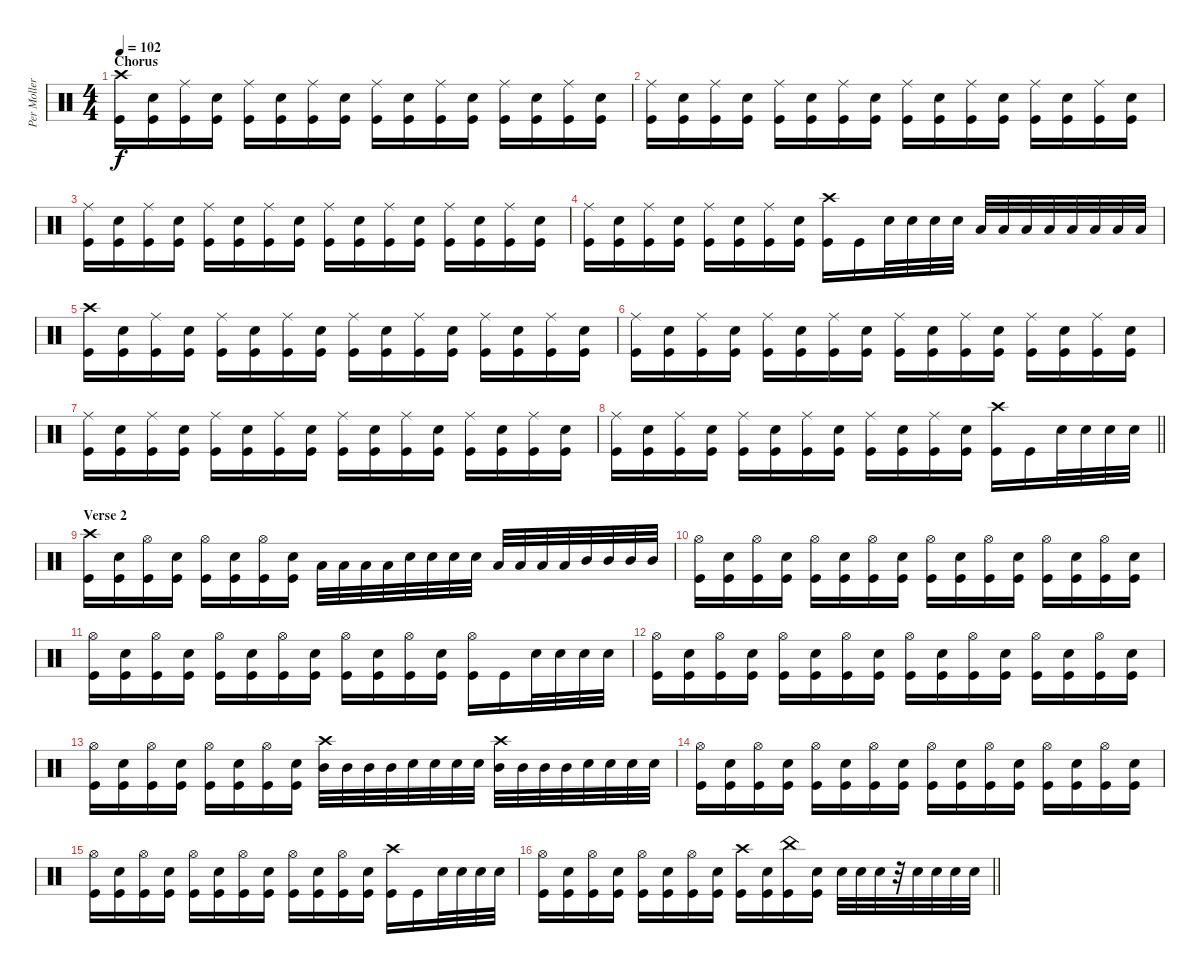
\track ("Per Moller Jensen" "Per Moller") {instrument percussion}
\staff {score}
\articulation defaults
\ts (4 4)
\section ("" "Chorus")
\tempo 102
\clef neutral
\ks c
("Crash high (hit)" "Kick (hit)").16{dy f} ("Snare (hit) 2" "Kick (hit)").16 ("Ride (middle)" "Kick (hit)").16 ("Snare (hit) 2" "Kick (hit)").16 ("Ride (middle)" "Kick (hit)").16 ("Snare (hit) 2" "Kick (hit)").16 ("Ride (middle)" "Kick (hit)").16 ("Snare (hit) 2" "Kick (hit)").16 ("Ride (middle)" "Kick (hit)").16 ("Snare (hit) 2" "Kick (hit)").16 ("Ride (middle)" "Kick (hit)").16 ("Snare (hit) 2" "Kick (hit)").16 ("Ride (middle)" "Kick (hit)").16 ("Snare (hit) 2" "Kick (hit)").16 ("Ride (middle)" "Kick (hit)").16 ("Snare (hit) 2" "Kick (hit)").16 |
("Ride (middle)" "Kick (hit)").16 ("Snare (hit) 2" "Kick (hit)").16 ("Ride (middle)" "Kick (hit)").16 ("Snare (hit) 2" "Kick (hit)").16 ("Ride (middle)" "Kick (hit)").16 ("Snare (hit) 2" "Kick (hit)").16 ("Ride (middle)" "Kick (hit)").16 ("Snare (hit) 2" "Kick (hit)").16 ("Ride (middle)" "Kick (hit)").16 ("Snare (hit) 2" "Kick (hit)").16 ("Ride (middle)" "Kick (hit)").16 ("Snare (hit) 2" "Kick (hit)").16 ("Ride (middle)" "Kick (hit)").16 ("Snare (hit) 2" "Kick (hit)").16 ("Ride (middle)" "Kick (hit)").16 ("Snare (hit) 2" "Kick (hit)").16 |
("Ride (middle)" "Kick (hit)").16 ("Snare (hit) 2" "Kick (hit)").16 ("Ride (middle)" "Kick (hit)").16 ("Snare (hit) 2" "Kick (hit)").16 ("Ride (middle)" "Kick (hit)").16 ("Snare (hit) 2" "Kick (hit)").16 ("Ride (middle)" "Kick (hit)").16 ("Snare (hit) 2" "Kick (hit)").16 ("Ride (middle)" "Kick (hit)").16 ("Snare (hit) 2" "Kick (hit)").16 ("Ride (middle)" "Kick (hit)").16 ("Snare (hit) 2" "Kick (hit)").16 ("Ride (middle)" "Kick (hit)").16 ("Snare (hit) 2" "Kick (hit)").16 ("Ride (middle)" "Kick (hit)").16 ("Snare (hit) 2" "Kick (hit)").16 |
("Ride (middle)" "Kick (hit)").16 ("Snare (hit) 2" "Kick (hit)").16 ("Ride (middle)" "Kick (hit)").16 ("Snare (hit) 2" "Kick (hit)").16 ("Ride (middle)" "Kick (hit)").16 ("Snare (hit) 2" "Kick (hit)").16 ("Ride (middle)" "Kick (hit)").16 ("Snare (hit) 2" "Kick (hit)").16 ("Crash high (hit)" "Kick (hit)").16 "Kick (hit)".16 "Snare (hit) 2".32 "Snare (hit) 2".32 "Snare (hit) 2".32 "Snare (hit) 2".32 "Low Tom (hit)".32 "Low Tom (hit)".32 "Low Tom (hit)".32 "Low Tom (hit)".32 "Low Tom (hit)".32 "Low Tom (hit)".32 "Low Tom (hit)".32 "Low Tom (hit)".32 |
("Crash high (hit)" "Kick (hit)").16 ("Snare (hit) 2" "Kick (hit)").16 ("Ride (middle)" "Kick (hit)").16 ("Snare (hit) 2" "Kick (hit)").16 ("Ride (middle)" "Kick (hit)").16 ("Snare (hit) 2" "Kick (hit)").16 ("Ride (middle)" "Kick (hit)").16 ("Snare (hit) 2" "Kick (hit)").16 ("Ride (middle)" "Kick (hit)").16 ("Snare (hit) 2" "Kick (hit)").16 ("Ride (middle)" "Kick (hit)").16 ("Snare (hit) 2" "Kick (hit)").16 ("Ride (middle)" "Kick (hit)").16 ("Snare (hit) 2" "Kick (hit)").16 ("Ride (middle)" "Kick (hit)").16 ("Snare (hit) 2" "Kick (hit)").16 |
("Ride (middle)" "Kick (hit)").16 ("Snare (hit) 2" "Kick (hit)").16 ("Ride (middle)" "Kick (hit)").16 ("Snare (hit) 2" "Kick (hit)").16 ("Ride (middle)" "Kick (hit)").16 ("Snare (hit) 2" "Kick (hit)").16 ("Ride (middle)" "Kick (hit)").16 ("Snare (hit) 2" "Kick (hit)").16 ("Ride (middle)" "Kick (hit)").16 ("Snare (hit) 2" "Kick (hit)").16 ("Ride (middle)" "Kick (hit)").16 ("Snare (hit) 2" "Kick (hit)").16 ("Ride (middle)" "Kick (hit)").16 ("Snare (hit) 2" "Kick (hit)").16 ("Ride (middle)" "Kick (hit)").16 ("Snare (hit) 2" "Kick (hit)").16 |
("Ride (middle)" "Kick (hit)").16 ("Snare (hit) 2" "Kick (hit)").16 ("Ride (middle)" "Kick (hit)").16 ("Snare (hit) 2" "Kick (hit)").16 ("Ride (middle)" "Kick (hit)").16 ("Snare (hit) 2" "Kick (hit)").16 ("Ride (middle)" "Kick (hit)").16 ("Snare (hit) 2" "Kick (hit)").16 ("Ride (middle)" "Kick (hit)").16 ("Snare (hit) 2" "Kick (hit)").16 ("Ride (middle)" "Kick (hit)").16 ("Snare (hit) 2" "Kick (hit)").16 ("Ride (middle)" "Kick (hit)").16 ("Snare (hit) 2" "Kick (hit)").16 ("Ride (middle)" "Kick (hit)").16 ("Snare (hit) 2" "Kick (hit)").16 |
\barLineRight lightlight
("Ride (middle)" "Kick (hit)").16 ("Snare (hit) 2" "Kick (hit)").16 ("Ride (middle)" "Kick (hit)").16 ("Snare (hit) 2" "Kick (hit)").16 ("Ride (middle)" "Kick (hit)").16 ("Snare (hit) 2" "Kick (hit)").16 ("Ride (middle)" "Kick (hit)").16 ("Snare (hit) 2" "Kick (hit)").16 ("Ride (middle)" "Kick (hit)").16 ("Snare (hit) 2" "Kick (hit)").16 ("Ride (middle)" "Kick (hit)").16 ("Snare (hit) 2" "Kick (hit)").16 ("Crash high (hit)" "Kick (hit)").16 "Kick (hit)".16 "Snare (hit) 2".32 "Snare (hit) 2".32 "Snare (hit) 2".32 "Snare (hit) 2".32 |
\section ("" "Verse 2")
("Crash high (hit)" "Kick (hit)").16 ("Snare (hit) 2" "Kick (hit)").16 ("Hi-Hat (open)" "Kick (hit)").16 ("Snare (hit) 2" "Kick (hit)").16 ("Hi-Hat (open)" "Kick (hit)").16 ("Snare (hit) 2" "Kick (hit)").16 ("Hi-Hat (open)" "Kick (hit)").16 ("Snare (hit) 2" "Kick (hit)").16 "Low Tom (hit)".32 "Low Tom (hit)".32 "Low Tom (hit)".32 "Low Tom (hit)".32 "Snare (hit) 2".32 "Snare (hit) 2".32 "Snare (hit) 2".32 "Snare (hit) 2".32 "Low Tom (hit)".32 "Low Tom (hit)".32 "Low Tom (hit)".32 "Low Tom (hit)".32 "Mid Tom (hit)".32 "Mid Tom (hit)".32 "Mid Tom (hit)".32 "Mid Tom (hit)".32 |
("Hi-Hat (open)" "Kick (hit)").16 ("Snare (hit) 2" "Kick (hit)").16 ("Hi-Hat (open)" "Kick (hit)").16 ("Snare (hit) 2" "Kick (hit)").16 ("Hi-Hat (open)" "Kick (hit)").16 ("Snare (hit) 2" "Kick (hit)").16 ("Hi-Hat (open)" "Kick (hit)").16 ("Snare (hit) 2" "Kick (hit)").16 ("Hi-Hat (open)" "Kick (hit)").16 ("Snare (hit) 2" "Kick (hit)").16 ("Hi-Hat (open)" "Kick (hit)").16 ("Snare (hit) 2" "Kick (hit)").16 ("Hi-Hat (open)" "Kick (hit)").16 ("Snare (hit) 2" "Kick (hit)").16 ("Hi-Hat (open)" "Kick (hit)").16 ("Snare (hit) 2" "Kick (hit)").16 |
("Hi-Hat (open)" "Kick (hit)").16 ("Snare (hit) 2" "Kick (hit)").16 ("Hi-Hat (open)" "Kick (hit)").16 ("Snare (hit) 2" "Kick (hit)").16 ("Hi-Hat (open)" "Kick (hit)").16 ("Snare (hit) 2" "Kick (hit)").16 ("Hi-Hat (open)" "Kick (hit)").16 ("Snare (hit) 2" "Kick (hit)").16 ("Hi-Hat (open)" "Kick (hit)").16 ("Snare (hit) 2" "Kick (hit)").16 ("Hi-Hat (open)" "Kick (hit)").16 ("Snare (hit) 2" "Kick (hit)").16 ("Hi-Hat (open)" "Kick (hit)").16 "Kick (hit)".16 "Snare (hit) 2".32 "Snare (hit) 2".32 "Snare (hit) 2".32 "Snare (hit) 2".32 |
("Hi-Hat (open)" "Kick (hit)").16 ("Snare (hit) 2" "Kick (hit)").16 ("Hi-Hat (open)" "Kick (hit)").16 ("Snare (hit) 2" "Kick (hit)").16 ("Hi-Hat (open)" "Kick (hit)").16 ("Snare (hit) 2" "Kick (hit)").16 ("Hi-Hat (open)" "Kick (hit)").16 ("Snare (hit) 2" "Kick (hit)").16 ("Hi-Hat (open)" "Kick (hit)").16 ("Snare (hit) 2" "Kick (hit)").16 ("Hi-Hat (open)" "Kick (hit)").16 ("Snare (hit) 2" "Kick (hit)").16 ("Hi-Hat (open)" "Kick (hit)").16 ("Snare (hit) 2" "Kick (hit)").16 ("Hi-Hat (open)" "Kick (hit)").16 ("Snare (hit) 2" "Kick (hit)").16 |
("Hi-Hat (open)" "Kick (hit)").16 ("Snare (hit) 2" "Kick (hit)").16 ("Hi-Hat (open)" "Kick (hit)").16 ("Snare (hit) 2" "Kick (hit)").16 ("Hi-Hat (open)" "Kick (hit)").16 ("Snare (hit) 2" "Kick (hit)").16 ("Hi-Hat (open)" "Kick (hit)").16 ("Snare (hit) 2" "Kick (hit)").16 ("Crash high (hit)" "Mid Tom (hit)").32 "Mid Tom (hit)".32 "Mid Tom (hit)".32 "Mid Tom (hit)".32 "Snare (hit) 2".32 "Snare (hit) 2".32 "Snare (hit) 2".32 "Snare (hit) 2".32 ("Crash high (hit)" "Mid Tom (hit)").32 "Mid Tom (hit)".32 "Mid Tom (hit)".32 "Mid Tom (hit)".32 "Snare (hit) 2".32 "Snare (hit) 2".32 "Snare (hit) 2".32 "Snare (hit) 2".32 |
("Hi-Hat (open)" "Kick (hit)").16 ("Snare (hit) 2" "Kick (hit)").16 ("Hi-Hat (open)" "Kick (hit)").16 ("Snare (hit) 2" "Kick (hit)").16 ("Hi-Hat (open)" "Kick (hit)").16 ("Snare (hit) 2" "Kick (hit)").16 ("Hi-Hat (open)" "Kick (hit)").16 ("Snare (hit) 2" "Kick (hit)").16 ("Hi-Hat (open)" "Kick (hit)").16 ("Snare (hit) 2" "Kick (hit)").16 ("Hi-Hat (open)" "Kick (hit)").16 ("Snare (hit) 2" "Kick (hit)").16 ("Hi-Hat (open)" "Kick (hit)").16 ("Snare (hit) 2" "Kick (hit)").16 ("Hi-Hat (open)" "Kick (hit)").16 ("Snare (hit) 2" "Kick (hit)").16 |
("Hi-Hat (open)" "Kick (hit)").16 ("Snare (hit) 2" "Kick (hit)").16 ("Hi-Hat (open)" "Kick (hit)").16 ("Snare (hit) 2" "Kick (hit)").16 ("Hi-Hat (open)" "Kick (hit)").16 ("Snare (hit) 2" "Kick (hit)").16 ("Hi-Hat (open)" "Kick (hit)").16 ("Snare (hit) 2" "Kick (hit)").16 ("Hi-Hat (open)" "Kick (hit)").16 ("Snare (hit) 2" "Kick (hit)").16 ("Hi-Hat (open)" "Kick (hit)").16 ("Snare (hit) 2" "Kick (hit)").16 ("Crash high (hit)" "Kick (hit)").16 "Kick (hit)".16 "Snare (hit) 2".32 "Snare (hit) 2".32 "Snare (hit) 2".32 "Snare (hit) 2".32 |
\barLineRight lightlight
("Hi-Hat (open)" "Kick (hit)").16 ("Snare (hit) 2" "Kick (hit)").16 ("Hi-Hat (open)" "Kick (hit)").16 ("Snare (hit) 2" "Kick (hit)").16 ("Hi-Hat (open)" "Kick (hit)").16 ("Snare (hit) 2" "Kick (hit)").16 ("Hi-Hat (open)" "Kick (hit)").16 ("Snare (hit) 2" "Kick (hit)").16 ("Crash high (hit)" "Kick (hit)").16 ("Snare (hit) 2" "Kick (hit)").16 ("China (hit)" "Kick (hit)").16 ("Snare (hit) 2" "Kick (hit)").16 "Snare (hit) 2".32 "Snare (hit) 2".32 "Snare (hit) 2".32 r.32 "Snare (hit) 2".32 "Snare (hit) 2".32 "Snare (hit) 2".32 "Snare (hit) 2".32
